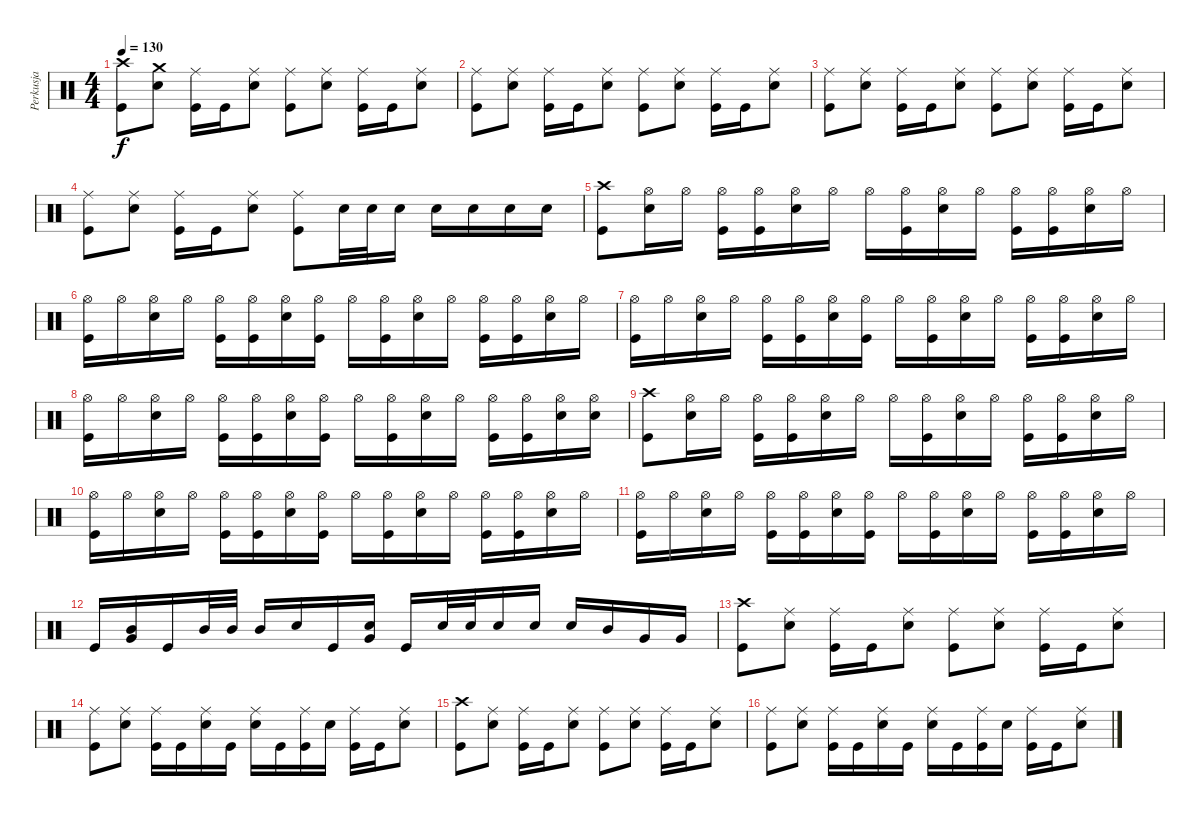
\track ("Perkusja" "Perkusja") {instrument percussion}
\staff {score}
\articulation defaults
\ts (4 4)
\tempo 130
\clef neutral
\ks c
("Crash high (hit)" "Kick (hit)").8{dy f} ("Crash medium (hit)" "Snare (hit) 2").8 ("Ride (middle)" "Kick (hit)").16 "Kick (hit)".16 ("Ride (middle)" "Snare (hit) 2").8 ("Ride (middle)" "Kick (hit)").8 ("Ride (middle)" "Snare (hit) 2").8 ("Ride (middle)" "Kick (hit)").16 "Kick (hit)".16 ("Ride (middle)" "Snare (hit) 2").8 |
("Ride (middle)" "Kick (hit)").8 ("Ride (middle)" "Snare (hit) 2").8 ("Ride (middle)" "Kick (hit)").16 "Kick (hit)".16 ("Ride (middle)" "Snare (hit) 2").8 ("Ride (middle)" "Kick (hit)").8 ("Ride (middle)" "Snare (hit) 2").8 ("Ride (middle)" "Kick (hit)").16 "Kick (hit)".16 ("Ride (middle)" "Snare (hit) 2").8 |
("Ride (middle)" "Kick (hit)").8 ("Ride (middle)" "Snare (hit) 2").8 ("Ride (middle)" "Kick (hit)").16 "Kick (hit)".16 ("Ride (middle)" "Snare (hit) 2").8 ("Ride (middle)" "Kick (hit)").8 ("Ride (middle)" "Snare (hit) 2").8 ("Ride (middle)" "Kick (hit)").16 "Kick (hit)".16 ("Ride (middle)" "Snare (hit) 2").8 |
("Ride (middle)" "Kick (hit)").8 ("Ride (middle)" "Snare (hit) 2").8 ("Ride (middle)" "Kick (hit)").16 "Kick (hit)".16 ("Ride (middle)" "Snare (hit) 2").8 ("Ride (middle)" "Kick (hit)").8 "Snare (hit) 2".32 "Snare (hit) 2".32 "Snare (hit) 2".16 "Snare (hit) 2".16 "Snare (hit) 2".16 "Snare (hit) 2".16 "Snare (hit) 2".16 |
("Crash high (hit)" "Kick (hit)").8 ("Hi-Hat (open)" "Snare (hit) 2").16 "Hi-Hat (open)".16 ("Hi-Hat (open)" "Kick (hit)").16 ("Hi-Hat (open)" "Kick (hit)").16 ("Hi-Hat (open)" "Snare (hit) 2").16 "Hi-Hat (open)".16 "Hi-Hat (open)".16 ("Hi-Hat (open)" "Kick (hit)").16 ("Hi-Hat (open)" "Snare (hit) 2").16 "Hi-Hat (open)".16 ("Hi-Hat (open)" "Kick (hit)").16 ("Hi-Hat (open)" "Kick (hit)").16 ("Hi-Hat (open)" "Snare (hit) 2").16 "Hi-Hat (open)".16 |
("Hi-Hat (open)" "Kick (hit)").16 "Hi-Hat (open)".16 ("Hi-Hat (open)" "Snare (hit) 2").16 "Hi-Hat (open)".16 ("Hi-Hat (open)" "Kick (hit)").16 ("Hi-Hat (open)" "Kick (hit)").16 ("Hi-Hat (open)" "Snare (hit) 2").16 ("Hi-Hat (open)" "Kick (hit)").16 "Hi-Hat (open)".16 ("Hi-Hat (open)" "Kick (hit)").16 ("Hi-Hat (open)" "Snare (hit) 2").16 "Hi-Hat (open)".16 ("Hi-Hat (open)" "Kick (hit)").16 ("Hi-Hat (open)" "Kick (hit)").16 ("Hi-Hat (open)" "Snare (hit) 2").16 "Hi-Hat (open)".16 |
("Hi-Hat (open)" "Kick (hit)").16 "Hi-Hat (open)".16 ("Hi-Hat (open)" "Snare (hit) 2").16 "Hi-Hat (open)".16 ("Hi-Hat (open)" "Kick (hit)").16 ("Hi-Hat (open)" "Kick (hit)").16 ("Hi-Hat (open)" "Snare (hit) 2").16 ("Hi-Hat (open)" "Kick (hit)").16 "Hi-Hat (open)".16 ("Hi-Hat (open)" "Kick (hit)").16 ("Hi-Hat (open)" "Snare (hit) 2").16 "Hi-Hat (open)".16 ("Hi-Hat (open)" "Kick (hit)").16 ("Hi-Hat (open)" "Kick (hit)").16 ("Hi-Hat (open)" "Snare (hit) 2").16 "Hi-Hat (open)".16 |
("Hi-Hat (open)" "Kick (hit)").16 "Hi-Hat (open)".16 ("Hi-Hat (open)" "Snare (hit) 2").16 "Hi-Hat (open)".16 ("Hi-Hat (open)" "Kick (hit)").16 ("Hi-Hat (open)" "Kick (hit)").16 ("Hi-Hat (open)" "Snare (hit) 2").16 ("Hi-Hat (open)" "Kick (hit)").16 "Hi-Hat (open)".16 ("Hi-Hat (open)" "Kick (hit)").16 ("Hi-Hat (open)" "Snare (hit) 2").16 "Hi-Hat (open)".16 ("Hi-Hat (open)" "Kick (hit)").16 ("Hi-Hat (open)" "Kick (hit)").16 ("Hi-Hat (open)" "Snare (hit) 2").16 ("Hi-Hat (open)" "Snare (hit) 2").16 |
("Crash high (hit)" "Kick (hit)").8 ("Hi-Hat (open)" "Snare (hit) 2").16 "Hi-Hat (open)".16 ("Hi-Hat (open)" "Kick (hit)").16 ("Hi-Hat (open)" "Kick (hit)").16 ("Hi-Hat (open)" "Snare (hit) 2").16 "Hi-Hat (open)".16 "Hi-Hat (open)".16 ("Hi-Hat (open)" "Kick (hit)").16 ("Hi-Hat (open)" "Snare (hit) 2").16 "Hi-Hat (open)".16 ("Hi-Hat (open)" "Kick (hit)").16 ("Hi-Hat (open)" "Kick (hit)").16 ("Hi-Hat (open)" "Snare (hit) 2").16 "Hi-Hat (open)".16 |
("Hi-Hat (open)" "Kick (hit)").16 "Hi-Hat (open)".16 ("Hi-Hat (open)" "Snare (hit) 2").16 "Hi-Hat (open)".16 ("Hi-Hat (open)" "Kick (hit)").16 ("Hi-Hat (open)" "Kick (hit)").16 ("Hi-Hat (open)" "Snare (hit) 2").16 ("Hi-Hat (open)" "Kick (hit)").16 "Hi-Hat (open)".16 ("Hi-Hat (open)" "Kick (hit)").16 ("Hi-Hat (open)" "Snare (hit) 2").16 "Hi-Hat (open)".16 ("Hi-Hat (open)" "Kick (hit)").16 ("Hi-Hat (open)" "Kick (hit)").16 ("Hi-Hat (open)" "Snare (hit) 2").16 "Hi-Hat (open)".16 |
("Hi-Hat (open)" "Kick (hit)").16 "Hi-Hat (open)".16 ("Hi-Hat (open)" "Snare (hit) 2").16 "Hi-Hat (open)".16 ("Hi-Hat (open)" "Kick (hit)").16 ("Hi-Hat (open)" "Kick (hit)").16 ("Hi-Hat (open)" "Snare (hit) 2").16 ("Hi-Hat (open)" "Kick (hit)").16 "Hi-Hat (open)".16 ("Hi-Hat (open)" "Kick (hit)").16 ("Hi-Hat (open)" "Snare (hit) 2").16 "Hi-Hat (open)".16 ("Hi-Hat (open)" "Kick (hit)").16 ("Hi-Hat (open)" "Kick (hit)").16 ("Hi-Hat (open)" "Snare (hit) 2").16 "Hi-Hat (open)".16 |
"Kick (hit)".16 ("Mid Tom (hit)" "Very Low Tom (hit)").16 "Kick (hit)".16 "Mid Tom (hit)".32 "Mid Tom (hit)".32 "Mid Tom (hit)".16 "Snare (hit) 2".16 "Kick (hit)".16 ("Snare (hit) 2" "Very Low Tom (hit)").16 "Kick (hit)".16 "Snare (hit) 2".32 "Snare (hit) 2".32 "Snare (hit) 2".16 "Snare (hit) 2".16 "Snare (hit) 2".16 "Mid Tom (hit)".16 "Very Low Tom (hit)".16 "Very Low Tom (hit)".16 |
("Crash high (hit)" "Kick (hit)").8 ("Ride (middle)" "Snare (hit) 2").8 ("Ride (middle)" "Kick (hit)").16 "Kick (hit)".16 ("Ride (middle)" "Snare (hit) 2").8 ("Ride (middle)" "Kick (hit)").8 ("Ride (middle)" "Snare (hit) 2").8 ("Ride (middle)" "Kick (hit)").16 "Kick (hit)".16 ("Ride (middle)" "Snare (hit) 2").8 |
("Ride (middle)" "Kick (hit)").8 ("Ride (middle)" "Snare (hit) 2").8 ("Ride (middle)" "Kick (hit)").16 "Kick (hit)".16 ("Ride (middle)" "Snare (hit) 2").16 "Kick (hit)".16 ("Ride (middle)" "Snare (hit) 2").16 "Kick (hit)".16 ("Ride (middle)" "Kick (hit)").16 "Snare (hit) 2".16 ("Ride (middle)" "Kick (hit)").16 "Kick (hit)".16 ("Ride (middle)" "Snare (hit) 2").8 |
("Crash high (hit)" "Kick (hit)").8 ("Ride (middle)" "Snare (hit) 2").8 ("Ride (middle)" "Kick (hit)").16 "Kick (hit)".16 ("Ride (middle)" "Snare (hit) 2").8 ("Ride (middle)" "Kick (hit)").8 ("Ride (middle)" "Snare (hit) 2").8 ("Ride (middle)" "Kick (hit)").16 "Kick (hit)".16 ("Ride (middle)" "Snare (hit) 2").8 |
("Ride (middle)" "Kick (hit)").8 ("Ride (middle)" "Snare (hit) 2").8 ("Ride (middle)" "Kick (hit)").16 "Kick (hit)".16 ("Ride (middle)" "Snare (hit) 2").16 "Kick (hit)".16 ("Ride (middle)" "Snare (hit) 2").16 "Kick (hit)".16 ("Ride (middle)" "Kick (hit)").16 "Snare (hit) 2".16 ("Ride (middle)" "Kick (hit)").16 "Kick (hit)".16 ("Ride (middle)" "Snare (hit) 2").8
